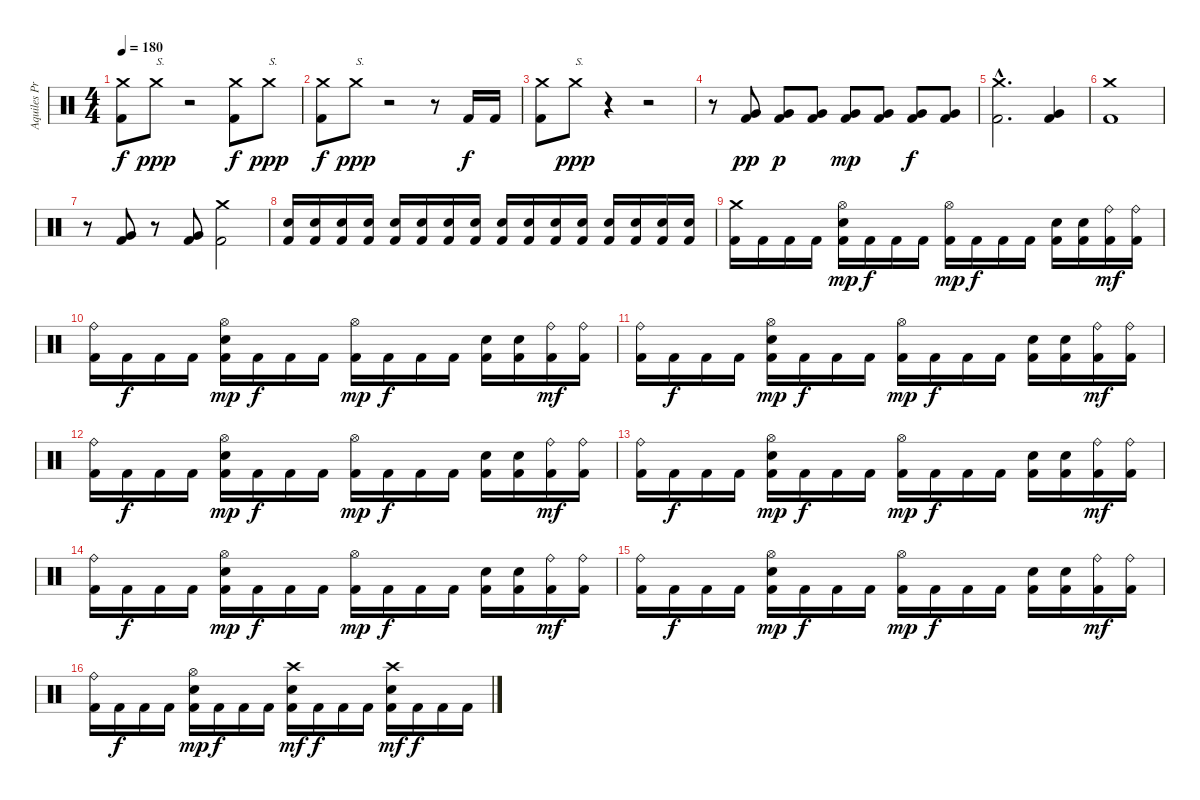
\track ("Aquiles Priester" "Aquiles Pr") {instrument percussion}
\staff {score}
\articulation defaults
\ts (4 4)
\tempo 180
\clef neutral
\ks c
("Crash medium (hit)" "Kick (hit) 2").8{dy f} "Crash medium (hit)".8{txt "S." dy ppp} r.2 ("Crash medium (hit)" "Kick (hit) 2").8{dy f} "Crash medium (hit)".8{txt "S." dy ppp} |
("Crash medium (hit)" "Kick (hit) 2").8{dy f} "Crash medium (hit)".8{txt "S." dy ppp} r.2 r.8 "Kick (hit) 2".16{dy f} "Kick (hit) 2".16 |
("Crash medium (hit)" "Kick (hit) 2").8 "Crash medium (hit)".8{txt "S." dy ppp} r.4 r.2 |
r.8 ("Very Low Tom (hit)" "Kick (hit) 2").8{dy pp} ("Very Low Tom (hit)" "Kick (hit) 2").8{dy p} ("Very Low Tom (hit)" "Kick (hit) 2").8 ("Very Low Tom (hit)" "Kick (hit) 2").8{dy mp} ("Very Low Tom (hit)" "Kick (hit) 2").8 ("Very Low Tom (hit)" "Kick (hit) 2").8{dy f} ("Very Low Tom (hit)" "Kick (hit) 2").8 |
("Crash medium (hit)"{hac} "Kick (hit) 2"{hac}).2{d} ("Very Low Tom (hit)" "Kick (hit) 2").4 |
("Crash medium (hit)" "Kick (hit) 2").1 |
r.8 ("Very Low Tom (hit)" "Kick (hit) 2").8 r.8 ("Very Low Tom (hit)" "Kick (hit) 2").8 ("Crash medium (hit)" "Kick (hit) 2").2 |
("Snare (hit) 2" "Kick (hit) 2").16 ("Snare (hit) 2" "Kick (hit) 2").16 ("Snare (hit) 2" "Kick (hit) 2").16 ("Snare (hit) 2" "Kick (hit) 2").16 ("Snare (hit) 2" "Kick (hit) 2").16 ("Snare (hit) 2" "Kick (hit) 2").16 ("Snare (hit) 2" "Kick (hit) 2").16 ("Snare (hit) 2" "Kick (hit) 2").16 ("Snare (hit) 2" "Kick (hit) 2").16 ("Snare (hit) 2" "Kick (hit) 2").16 ("Snare (hit) 2" "Kick (hit) 2").16 ("Snare (hit) 2" "Kick (hit) 2").16 ("Snare (hit) 2" "Kick (hit) 2").16 ("Snare (hit) 2" "Kick (hit) 2").16 ("Snare (hit) 2" "Kick (hit) 2").16 ("Snare (hit) 2" "Kick (hit) 2").16 |
("Crash medium (hit)" "Kick (hit) 2").16 "Kick (hit) 2".16 "Kick (hit) 2".16 "Kick (hit) 2".16 ("Hi-Hat (open)" "Snare (hit) 2" "Kick (hit) 2").16{dy mp} "Kick (hit) 2".16{dy f} "Kick (hit) 2".16 "Kick (hit) 2".16 ("Hi-Hat (open)" "Kick (hit) 2").16{dy mp} "Kick (hit) 2".16{dy f} "Kick (hit) 2".16 "Kick (hit) 2".16 ("Snare (hit) 2" "Kick (hit) 2").16 ("Snare (hit) 2" "Kick (hit) 2").16 ("Ride (bell)" "Kick (hit) 2").16{dy mf} ("Ride (bell)" "Kick (hit) 2").16 |
("Ride (bell)" "Kick (hit) 2").16 "Kick (hit) 2".16{dy f} "Kick (hit) 2".16 "Kick (hit) 2".16 ("Hi-Hat (open)" "Snare (hit) 2" "Kick (hit) 2").16{dy mp} "Kick (hit) 2".16{dy f} "Kick (hit) 2".16 "Kick (hit) 2".16 ("Hi-Hat (open)" "Kick (hit) 2").16{dy mp} "Kick (hit) 2".16{dy f} "Kick (hit) 2".16 "Kick (hit) 2".16 ("Snare (hit) 2" "Kick (hit) 2").16 ("Snare (hit) 2" "Kick (hit) 2").16 ("Ride (bell)" "Kick (hit) 2").16{dy mf} ("Ride (bell)" "Kick (hit) 2").16 |
("Ride (bell)" "Kick (hit) 2").16 "Kick (hit) 2".16{dy f} "Kick (hit) 2".16 "Kick (hit) 2".16 ("Hi-Hat (open)" "Snare (hit) 2" "Kick (hit) 2").16{dy mp} "Kick (hit) 2".16{dy f} "Kick (hit) 2".16 "Kick (hit) 2".16 ("Hi-Hat (open)" "Kick (hit) 2").16{dy mp} "Kick (hit) 2".16{dy f} "Kick (hit) 2".16 "Kick (hit) 2".16 ("Snare (hit) 2" "Kick (hit) 2").16 ("Snare (hit) 2" "Kick (hit) 2").16 ("Ride (bell)" "Kick (hit) 2").16{dy mf} ("Ride (bell)" "Kick (hit) 2").16 |
("Ride (bell)" "Kick (hit) 2").16 "Kick (hit) 2".16{dy f} "Kick (hit) 2".16 "Kick (hit) 2".16 ("Hi-Hat (open)" "Snare (hit) 2" "Kick (hit) 2").16{dy mp} "Kick (hit) 2".16{dy f} "Kick (hit) 2".16 "Kick (hit) 2".16 ("Hi-Hat (open)" "Kick (hit) 2").16{dy mp} "Kick (hit) 2".16{dy f} "Kick (hit) 2".16 "Kick (hit) 2".16 ("Snare (hit) 2" "Kick (hit) 2").16 ("Snare (hit) 2" "Kick (hit) 2").16 ("Ride (bell)" "Kick (hit) 2").16{dy mf} ("Ride (bell)" "Kick (hit) 2").16 |
("Ride (bell)" "Kick (hit) 2").16 "Kick (hit) 2".16{dy f} "Kick (hit) 2".16 "Kick (hit) 2".16 ("Hi-Hat (open)" "Snare (hit) 2" "Kick (hit) 2").16{dy mp} "Kick (hit) 2".16{dy f} "Kick (hit) 2".16 "Kick (hit) 2".16 ("Hi-Hat (open)" "Kick (hit) 2").16{dy mp} "Kick (hit) 2".16{dy f} "Kick (hit) 2".16 "Kick (hit) 2".16 ("Snare (hit) 2" "Kick (hit) 2").16 ("Snare (hit) 2" "Kick (hit) 2").16 ("Ride (bell)" "Kick (hit) 2").16{dy mf} ("Ride (bell)" "Kick (hit) 2").16 |
("Ride (bell)" "Kick (hit) 2").16 "Kick (hit) 2".16{dy f} "Kick (hit) 2".16 "Kick (hit) 2".16 ("Hi-Hat (open)" "Snare (hit) 2" "Kick (hit) 2").16{dy mp} "Kick (hit) 2".16{dy f} "Kick (hit) 2".16 "Kick (hit) 2".16 ("Hi-Hat (open)" "Kick (hit) 2").16{dy mp} "Kick (hit) 2".16{dy f} "Kick (hit) 2".16 "Kick (hit) 2".16 ("Snare (hit) 2" "Kick (hit) 2").16 ("Snare (hit) 2" "Kick (hit) 2").16 ("Ride (bell)" "Kick (hit) 2").16{dy mf} ("Ride (bell)" "Kick (hit) 2").16 |
("Ride (bell)" "Kick (hit) 2").16 "Kick (hit) 2".16{dy f} "Kick (hit) 2".16 "Kick (hit) 2".16 ("Hi-Hat (open)" "Snare (hit) 2" "Kick (hit) 2").16{dy mp} "Kick (hit) 2".16{dy f} "Kick (hit) 2".16 "Kick (hit) 2".16 ("Hi-Hat (open)" "Kick (hit) 2").16{dy mp} "Kick (hit) 2".16{dy f} "Kick (hit) 2".16 "Kick (hit) 2".16 ("Snare (hit) 2" "Kick (hit) 2").16 ("Snare (hit) 2" "Kick (hit) 2").16 ("Ride (bell)" "Kick (hit) 2").16{dy mf} ("Ride (bell)" "Kick (hit) 2").16 |
("Ride (bell)" "Kick (hit) 2").16 "Kick (hit) 2".16{dy f} "Kick (hit) 2".16 "Kick (hit) 2".16 ("Hi-Hat (open)" "Snare (hit) 2" "Kick (hit) 2").16{dy mp} "Kick (hit) 2".16{dy f} "Kick (hit) 2".16 "Kick (hit) 2".16 ("Crash high (hit)" "Snare (hit) 2" "Kick (hit) 2").16{dy mf} "Kick (hit) 2".16{dy f} "Kick (hit) 2".16 "Kick (hit) 2".16 ("Crash high (hit)" "Snare (hit) 2" "Kick (hit) 2").16{dy mf} "Kick (hit) 2".16{dy f} "Kick (hit) 2".16 "Kick (hit) 2".16
